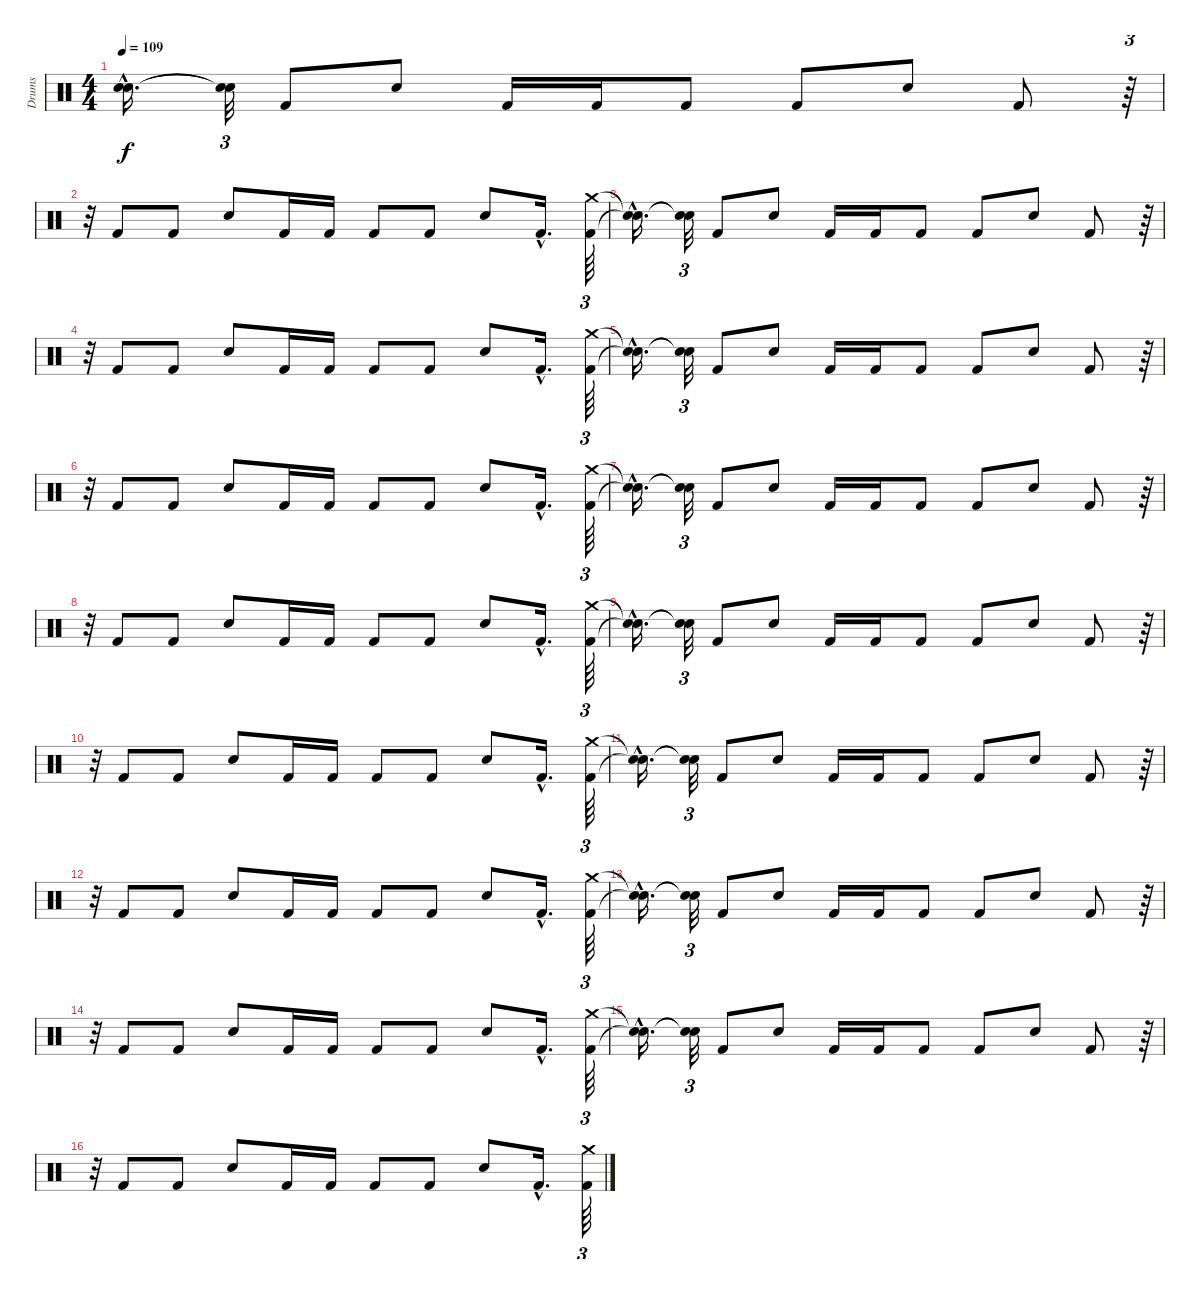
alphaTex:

\track ("Drums" "Drums") {instrument percussion}
\staff {score}
\articulation defaults
\ts (4 4)
\tempo 109
\clef neutral
\ks c
("Snare (hit)"{hac t} "Snare (hit)"{hac t}).16{d dy f} ("Snare (hit)"{t} "Snare (hit)"{t}).32{tu (3 2)} "Kick (hit) 2".8 "Snare (hit) 2".8 "Kick (hit) 2".16 "Kick (hit) 2".16 "Kick (hit) 2".8 "Kick (hit) 2".8 "Snare (hit) 2".8 "Kick (hit) 2".8 r.64{tu (3 2)} |
r.32{tu (3 2)} "Kick (hit) 2".8 "Kick (hit) 2".8 "Snare (hit) 2".8 "Kick (hit) 2".16 "Kick (hit) 2".16 "Kick (hit) 2".8 "Kick (hit) 2".8 "Snare (hit) 2".8 "Kick (hit) 2"{hac}.16{d} ("Crash medium (hit)" "Kick (hit) 2").64{tu (3 2)} |
("Snare (hit)"{hac t} "Snare (hit)"{hac t}).16{d} ("Snare (hit)"{t} "Snare (hit)"{t}).32{tu (3 2)} "Kick (hit) 2".8 "Snare (hit) 2".8 "Kick (hit) 2".16 "Kick (hit) 2".16 "Kick (hit) 2".8 "Kick (hit) 2".8 "Snare (hit) 2".8 "Kick (hit) 2".8 r.64{tu (3 2)} |
r.32{tu (3 2)} "Kick (hit) 2".8 "Kick (hit) 2".8 "Snare (hit) 2".8 "Kick (hit) 2".16 "Kick (hit) 2".16 "Kick (hit) 2".8 "Kick (hit) 2".8 "Snare (hit) 2".8 "Kick (hit) 2"{hac}.16{d} ("Crash medium (hit)" "Kick (hit) 2").64{tu (3 2)} |
("Snare (hit)"{hac t} "Snare (hit)"{hac t}).16{d} ("Snare (hit)"{t} "Snare (hit)"{t}).32{tu (3 2)} "Kick (hit) 2".8 "Snare (hit) 2".8 "Kick (hit) 2".16 "Kick (hit) 2".16 "Kick (hit) 2".8 "Kick (hit) 2".8 "Snare (hit) 2".8 "Kick (hit) 2".8 r.64{tu (3 2)} |
r.32{tu (3 2)} "Kick (hit) 2".8 "Kick (hit) 2".8 "Snare (hit) 2".8 "Kick (hit) 2".16 "Kick (hit) 2".16 "Kick (hit) 2".8 "Kick (hit) 2".8 "Snare (hit) 2".8 "Kick (hit) 2"{hac}.16{d} ("Crash medium (hit)" "Kick (hit) 2").64{tu (3 2)} |
("Snare (hit)"{hac t} "Snare (hit)"{hac t}).16{d} ("Snare (hit)"{t} "Snare (hit)"{t}).32{tu (3 2)} "Kick (hit) 2".8 "Snare (hit) 2".8 "Kick (hit) 2".16 "Kick (hit) 2".16 "Kick (hit) 2".8 "Kick (hit) 2".8 "Snare (hit) 2".8 "Kick (hit) 2".8 r.64{tu (3 2)} |
r.32{tu (3 2)} "Kick (hit) 2".8 "Kick (hit) 2".8 "Snare (hit) 2".8 "Kick (hit) 2".16 "Kick (hit) 2".16 "Kick (hit) 2".8 "Kick (hit) 2".8 "Snare (hit) 2".8 "Kick (hit) 2"{hac}.16{d} ("Crash medium (hit)" "Kick (hit) 2").64{tu (3 2)} |
("Snare (hit)"{hac t} "Snare (hit)"{hac t}).16{d} ("Snare (hit)"{t} "Snare (hit)"{t}).32{tu (3 2)} "Kick (hit) 2".8 "Snare (hit) 2".8 "Kick (hit) 2".16 "Kick (hit) 2".16 "Kick (hit) 2".8 "Kick (hit) 2".8 "Snare (hit) 2".8 "Kick (hit) 2".8 r.64{tu (3 2)} |
r.32{tu (3 2)} "Kick (hit) 2".8 "Kick (hit) 2".8 "Snare (hit) 2".8 "Kick (hit) 2".16 "Kick (hit) 2".16 "Kick (hit) 2".8 "Kick (hit) 2".8 "Snare (hit) 2".8 "Kick (hit) 2"{hac}.16{d} ("Crash medium (hit)" "Kick (hit) 2").64{tu (3 2)} |
("Snare (hit)"{hac t} "Snare (hit)"{hac t}).16{d} ("Snare (hit)"{t} "Snare (hit)"{t}).32{tu (3 2)} "Kick (hit) 2".8 "Snare (hit) 2".8 "Kick (hit) 2".16 "Kick (hit) 2".16 "Kick (hit) 2".8 "Kick (hit) 2".8 "Snare (hit) 2".8 "Kick (hit) 2".8 r.64{tu (3 2)} |
r.32{tu (3 2)} "Kick (hit) 2".8 "Kick (hit) 2".8 "Snare (hit) 2".8 "Kick (hit) 2".16 "Kick (hit) 2".16 "Kick (hit) 2".8 "Kick (hit) 2".8 "Snare (hit) 2".8 "Kick (hit) 2"{hac}.16{d} ("Crash medium (hit)" "Kick (hit) 2").64{tu (3 2)} |
("Snare (hit)"{hac t} "Snare (hit)"{hac t}).16{d} ("Snare (hit)"{t} "Snare (hit)"{t}).32{tu (3 2)} "Kick (hit) 2".8 "Snare (hit) 2".8 "Kick (hit) 2".16 "Kick (hit) 2".16 "Kick (hit) 2".8 "Kick (hit) 2".8 "Snare (hit) 2".8 "Kick (hit) 2".8 r.64{tu (3 2)} |
r.32{tu (3 2)} "Kick (hit) 2".8 "Kick (hit) 2".8 "Snare (hit) 2".8 "Kick (hit) 2".16 "Kick (hit) 2".16 "Kick (hit) 2".8 "Kick (hit) 2".8 "Snare (hit) 2".8 "Kick (hit) 2"{hac}.16{d} ("Crash medium (hit)" "Kick (hit) 2").64{tu (3 2)} |
("Snare (hit)"{hac t} "Snare (hit)"{hac t}).16{d} ("Snare (hit)"{t} "Snare (hit)"{t}).32{tu (3 2)} "Kick (hit) 2".8 "Snare (hit) 2".8 "Kick (hit) 2".16 "Kick (hit) 2".16 "Kick (hit) 2".8 "Kick (hit) 2".8 "Snare (hit) 2".8 "Kick (hit) 2".8 r.64{tu (3 2)} |
r.32{tu (3 2)} "Kick (hit) 2".8 "Kick (hit) 2".8 "Snare (hit) 2".8 "Kick (hit) 2".16 "Kick (hit) 2".16 "Kick (hit) 2".8 "Kick (hit) 2".8 "Snare (hit) 2".8 "Kick (hit) 2"{hac}.16{d} ("Crash medium (hit)" "Kick (hit) 2").64{tu (3 2)}
